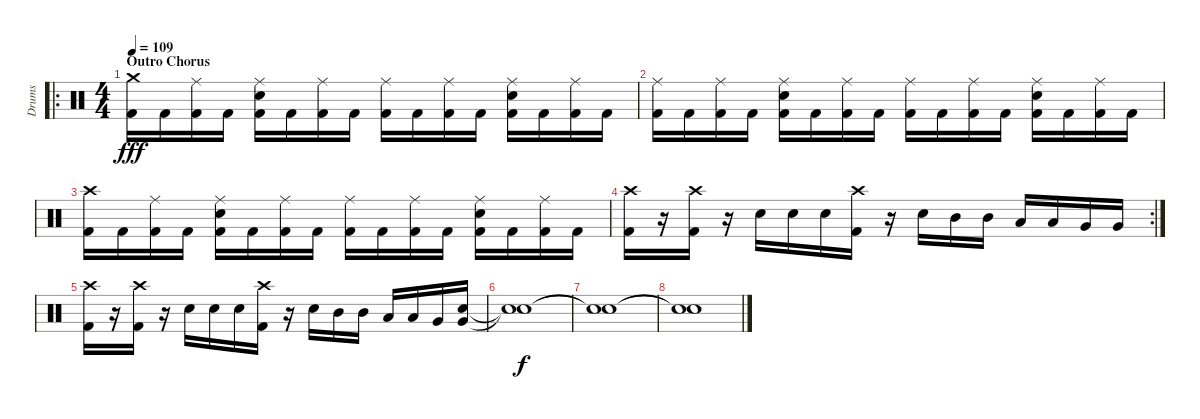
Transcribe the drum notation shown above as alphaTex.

\track ("Drums" "Drums") {instrument percussion}
\staff {score}
\articulation defaults
\ro
\ts (4 4)
\section ("" "Outro Chorus")
\tempo 109
\clef neutral
\ks c
("Crash medium (hit)" "Kick (hit) 2").16{dy fff} "Kick (hit) 2".16 ("Ride (middle)" "Kick (hit) 2").16 "Kick (hit) 2".16 ("Ride (middle)" "Electric Snare (hit)" "Kick (hit) 2").16 "Kick (hit) 2".16 ("Ride (middle)" "Kick (hit) 2").16 "Kick (hit) 2".16 ("Ride (middle)" "Kick (hit) 2").16 "Kick (hit) 2".16 ("Ride (middle)" "Kick (hit) 2").16 "Kick (hit) 2".16 ("Ride (middle)" "Electric Snare (hit)" "Kick (hit) 2").16 "Kick (hit) 2".16 ("Ride (middle)" "Kick (hit) 2").16 "Kick (hit) 2".16 |
("Ride (middle)" "Kick (hit) 2").16 "Kick (hit) 2".16 ("Ride (middle)" "Kick (hit) 2").16 "Kick (hit) 2".16 ("Ride (middle)" "Electric Snare (hit)" "Kick (hit) 2").16 "Kick (hit) 2".16 ("Ride (middle)" "Kick (hit) 2").16 "Kick (hit) 2".16 ("Ride (middle)" "Kick (hit) 2").16 "Kick (hit) 2".16 ("Ride (middle)" "Kick (hit) 2").16 "Kick (hit) 2".16 ("Ride (middle)" "Electric Snare (hit)" "Kick (hit) 2").16 "Kick (hit) 2".16 ("Ride (middle)" "Kick (hit) 2").16 "Kick (hit) 2".16 |
("Crash high (hit)" "Kick (hit) 2").16 "Kick (hit) 2".16 ("Ride (middle)" "Kick (hit) 2").16 "Kick (hit) 2".16 ("Ride (middle)" "Electric Snare (hit)" "Kick (hit) 2").16 "Kick (hit) 2".16 ("Ride (middle)" "Kick (hit) 2").16 "Kick (hit) 2".16 ("Ride (middle)" "Kick (hit) 2").16 "Kick (hit) 2".16 ("Ride (middle)" "Kick (hit) 2").16 "Kick (hit) 2".16 ("Ride (middle)" "Electric Snare (hit)" "Kick (hit) 2").16 "Kick (hit) 2".16 ("Ride (middle)" "Kick (hit) 2").16 "Kick (hit) 2".16 |
\rc 2
("Crash high (hit)" "Kick (hit) 2").16 r.16 ("Crash high (hit)" "Kick (hit) 2").16 r.16 "Electric Snare (hit)".16 "Electric Snare (hit)".16 "Electric Snare (hit)".16 ("Crash high (hit)" "Kick (hit) 2").16 r.16 "Electric Snare (hit)".16 "Mid Tom (hit)".16 "Mid Tom (hit)".16 "Low Tom (hit)".16 "Low Tom (hit)".16 "Very Low Tom (hit)".16 "Very Low Tom (hit)".16 |
("Crash high (hit)" "Kick (hit) 2").16 r.16 ("Crash high (hit)" "Kick (hit) 2").16 r.16 "Electric Snare (hit)".16 "Electric Snare (hit)".16 "Electric Snare (hit)".16 ("Crash high (hit)" "Kick (hit) 2").16 r.16 "Electric Snare (hit)".16 "Mid Tom (hit)".16 "Mid Tom (hit)".16 "Low Tom (hit)".16 "Low Tom (hit)".16 "Very Low Tom (hit)".16 ("Very Low Tom (hit)" "Electric Snare (hit)").16 |
("Snare (hit)"{t} "Snare (hit)"{t}).1{dy f} |
("Snare (hit)"{t} "Snare (hit)"{t}).1 |
("Snare (hit)"{t} "Snare (hit)"{t}).1
